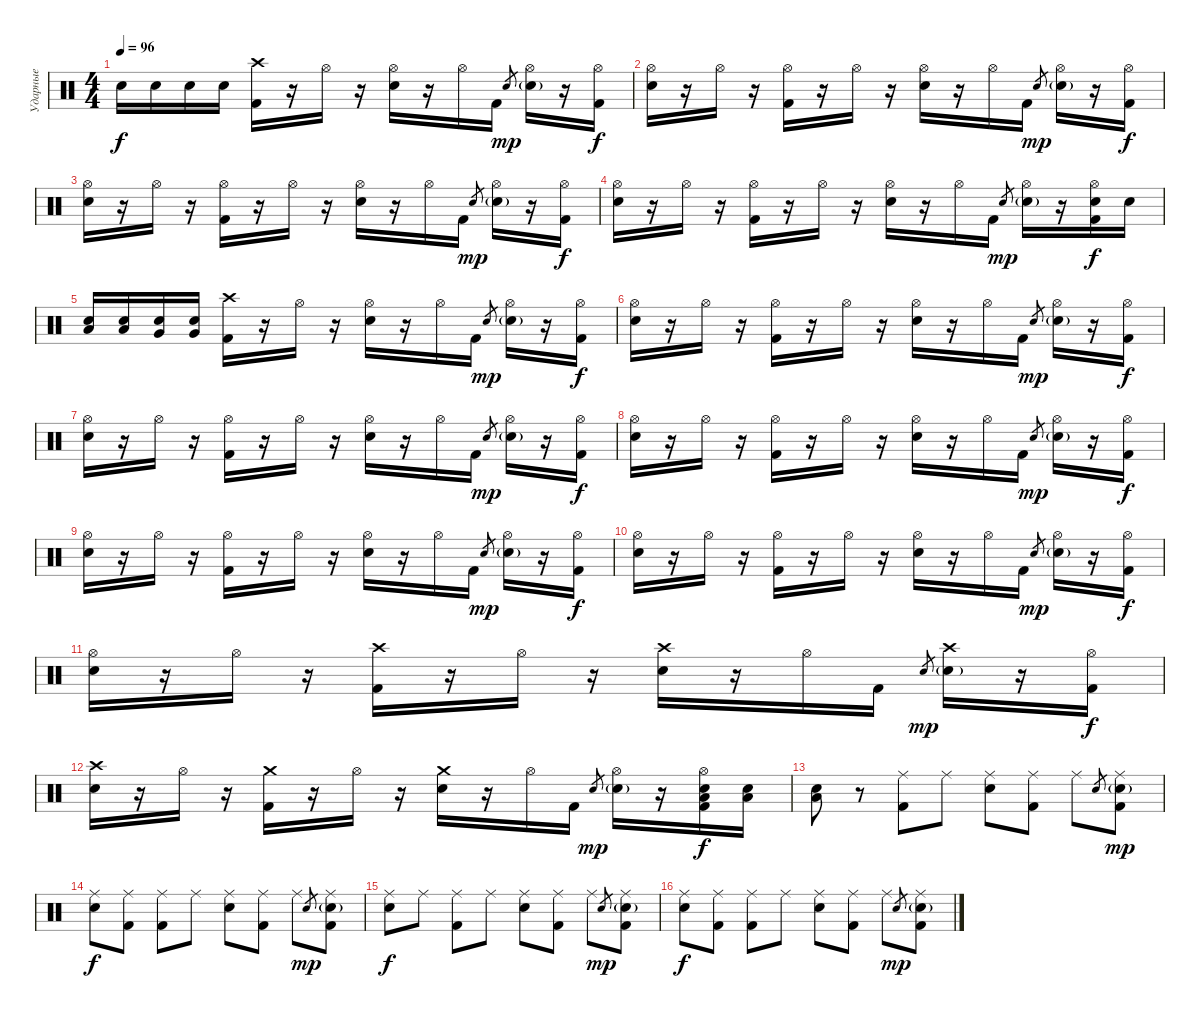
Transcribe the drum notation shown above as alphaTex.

\track ("Ударные" "Ударные") {instrument percussion}
\staff {score}
\articulation defaults
\ts (4 4)
\tempo 96
\clef neutral
\ks c "Electric Snare (hit)".16{dy f} "Electric Snare (hit)".16 "Electric Snare (hit)".16 "Electric Snare (hit)".16
("Crash high (hit)" "Kick (hit) 2").16 r.16 "Hi-Hat (open)".16 r.16 ("Hi-Hat (open)" "Electric Snare (hit)").16 r.16 "Hi-Hat (open)".16 "Kick (hit) 2".16 "Snare (hit) 2".8{gr dy mp} ("Hi-Hat (open)" "Snare (hit) 2"{g}).16 r.16 ("Hi-Hat (open)" "Kick (hit) 2").16{dy f} |
("Hi-Hat (open)" "Electric Snare (hit)").16 r.16 "Hi-Hat (open)".16 r.16 ("Hi-Hat (open)" "Kick (hit) 2").16 r.16 "Hi-Hat (open)".16 r.16 ("Hi-Hat (open)" "Electric Snare (hit)").16 r.16 "Hi-Hat (open)".16 "Kick (hit) 2".16 "Snare (hit) 2".8{gr dy mp} ("Hi-Hat (open)" "Snare (hit) 2"{g}).16 r.16 ("Hi-Hat (open)" "Kick (hit) 2").16{dy f} |
("Hi-Hat (open)" "Electric Snare (hit)").16 r.16 "Hi-Hat (open)".16 r.16 ("Hi-Hat (open)" "Kick (hit) 2").16 r.16 "Hi-Hat (open)".16 r.16 ("Hi-Hat (open)" "Electric Snare (hit)").16 r.16 "Hi-Hat (open)".16 "Kick (hit) 2".16 "Snare (hit) 2".8{gr dy mp} ("Hi-Hat (open)" "Snare (hit) 2"{g}).16 r.16 ("Hi-Hat (open)" "Kick (hit) 2").16{dy f} |
("Hi-Hat (open)" "Electric Snare (hit)").16 r.16 "Hi-Hat (open)".16 r.16 ("Hi-Hat (open)" "Kick (hit) 2").16 r.16 "Hi-Hat (open)".16 r.16 ("Hi-Hat (open)" "Electric Snare (hit)").16 r.16 "Hi-Hat (open)".16 "Kick (hit) 2".16 "Snare (hit) 2".8{gr dy mp} ("Hi-Hat (open)" "Snare (hit) 2"{g}).16 r.16 ("Hi-Hat (open)" "Electric Snare (hit)" "Kick (hit) 2").16{dy f} "Electric Snare (hit)".16 |
("Low Tom (hit)" "Electric Snare (hit)").16 ("Low Tom (hit)" "Electric Snare (hit)").16 ("Very Low Tom (hit)" "Electric Snare (hit)").16 ("Very Low Tom (hit)" "Electric Snare (hit)").16 ("Crash high (hit)" "Kick (hit) 2").16 r.16 "Hi-Hat (open)".16 r.16 ("Hi-Hat (open)" "Electric Snare (hit)").16 r.16 "Hi-Hat (open)".16 "Kick (hit) 2".16 "Snare (hit) 2".8{gr dy mp} ("Hi-Hat (open)" "Snare (hit) 2"{g}).16 r.16 ("Hi-Hat (open)" "Kick (hit) 2").16{dy f} |
("Hi-Hat (open)" "Electric Snare (hit)").16 r.16 "Hi-Hat (open)".16 r.16 ("Hi-Hat (open)" "Kick (hit) 2").16 r.16 "Hi-Hat (open)".16 r.16 ("Hi-Hat (open)" "Electric Snare (hit)").16 r.16 "Hi-Hat (open)".16 "Kick (hit) 2".16 "Snare (hit) 2".8{gr dy mp} ("Hi-Hat (open)" "Snare (hit) 2"{g}).16 r.16 ("Hi-Hat (open)" "Kick (hit) 2").16{dy f} |
("Hi-Hat (open)" "Electric Snare (hit)").16 r.16 "Hi-Hat (open)".16 r.16 ("Hi-Hat (open)" "Kick (hit) 2").16 r.16 "Hi-Hat (open)".16 r.16 ("Hi-Hat (open)" "Electric Snare (hit)").16 r.16 "Hi-Hat (open)".16 "Kick (hit) 2".16 "Snare (hit) 2".8{gr dy mp} ("Hi-Hat (open)" "Snare (hit) 2"{g}).16 r.16 ("Hi-Hat (open)" "Kick (hit) 2").16{dy f} |
("Hi-Hat (open)" "Electric Snare (hit)").16 r.16 "Hi-Hat (open)".16 r.16 ("Hi-Hat (open)" "Kick (hit) 2").16 r.16 "Hi-Hat (open)".16 r.16 ("Hi-Hat (open)" "Electric Snare (hit)").16 r.16 "Hi-Hat (open)".16 "Kick (hit) 2".16 "Snare (hit) 2".8{gr dy mp} ("Hi-Hat (open)" "Snare (hit) 2"{g}).16 r.16 ("Hi-Hat (open)" "Kick (hit) 2").16{dy f} |
("Hi-Hat (open)" "Electric Snare (hit)").16 r.16 "Hi-Hat (open)".16 r.16 ("Hi-Hat (open)" "Kick (hit) 2").16 r.16 "Hi-Hat (open)".16 r.16 ("Hi-Hat (open)" "Electric Snare (hit)").16 r.16 "Hi-Hat (open)".16 "Kick (hit) 2".16 "Snare (hit) 2".8{gr dy mp} ("Hi-Hat (open)" "Snare (hit) 2"{g}).16 r.16 ("Hi-Hat (open)" "Kick (hit) 2").16{dy f} |
("Hi-Hat (open)" "Electric Snare (hit)").16 r.16 "Hi-Hat (open)".16 r.16 ("Hi-Hat (open)" "Kick (hit) 2").16 r.16 "Hi-Hat (open)".16 r.16 ("Hi-Hat (open)" "Electric Snare (hit)").16 r.16 "Hi-Hat (open)".16 "Kick (hit) 2".16 "Snare (hit) 2".8{gr dy mp} ("Hi-Hat (open)" "Snare (hit) 2"{g}).16 r.16 ("Hi-Hat (open)" "Kick (hit) 2").16{dy f} |
("Hi-Hat (open)" "Electric Snare (hit)").16 r.16 "Hi-Hat (open)".16 r.16 ("Crash high (hit)" "Kick (hit) 2").16 r.16 "Hi-Hat (open)".16 r.16 ("Crash high (hit)" "Electric Snare (hit)").16 r.16 "Hi-Hat (open)".16 "Kick (hit) 2".16 "Snare (hit) 2".8{gr dy mp} ("Crash high (hit)" "Snare (hit) 2"{g}).16 r.16 ("Hi-Hat (open)" "Kick (hit) 2").16{dy f} |
("Crash high (hit)" "Electric Snare (hit)").16 r.16 "Hi-Hat (open)".16 r.16 ("Crash medium (hit)" "Kick (hit) 2").16 r.16 "Hi-Hat (open)".16 r.16 ("Crash medium (hit)" "Electric Snare (hit)").16 r.16 "Hi-Hat (open)".16 "Kick (hit) 2".16 "Snare (hit) 2".8{gr dy mp} ("Hi-Hat (open)" "Snare (hit) 2"{g}).16 r.16 ("Hi-Hat (open)" "Low Tom (hit)" "Electric Snare (hit)" "Kick (hit) 2").16{dy f} ("Low Tom (hit)" "Electric Snare (hit)").16 |
("Low Tom (hit)" "Electric Snare (hit)").8 r.8 ("Ride (middle)" "Kick (hit) 2").8 "Ride (middle)".8 ("Ride (middle)" "Snare (hit) 2").8 ("Ride (middle)" "Kick (hit) 2").8 "Ride (middle)".8 "Snare (hit) 2".8{gr} ("Ride (middle)" "Snare (hit) 2"{g} "Kick (hit) 2").8{dy mp} |
("Ride (middle)" "Snare (hit) 2").8{dy f} ("Ride (middle)" "Kick (hit) 2").8 ("Ride (middle)" "Kick (hit) 2").8 "Ride (middle)".8 ("Ride (middle)" "Electric Snare (hit)").8 ("Ride (middle)" "Kick (hit) 2").8 "Ride (middle)".8 "Electric Snare (hit)".8{gr dy mp} ("Ride (middle)" "Electric Snare (hit)"{g} "Kick (hit) 2").8 |
("Ride (middle)" "Electric Snare (hit)").8{dy f} "Ride (middle)".8 ("Ride (middle)" "Kick (hit) 2").8 "Ride (middle)".8 ("Ride (middle)" "Snare (hit) 2").8 ("Ride (middle)" "Kick (hit) 2").8 "Ride (middle)".8 "Snare (hit) 2".8{gr dy mp} ("Ride (middle)" "Snare (hit) 2"{g} "Kick (hit) 2").8 |
("Ride (middle)" "Snare (hit) 2").8{dy f} ("Ride (middle)" "Kick (hit) 2").8 ("Ride (middle)" "Kick (hit) 2").8 "Ride (middle)".8 ("Ride (middle)" "Electric Snare (hit)").8 ("Ride (middle)" "Kick (hit) 2").8 "Ride (middle)".8 "Electric Snare (hit)".8{gr dy mp} ("Ride (middle)" "Electric Snare (hit)"{g} "Kick (hit) 2").8
